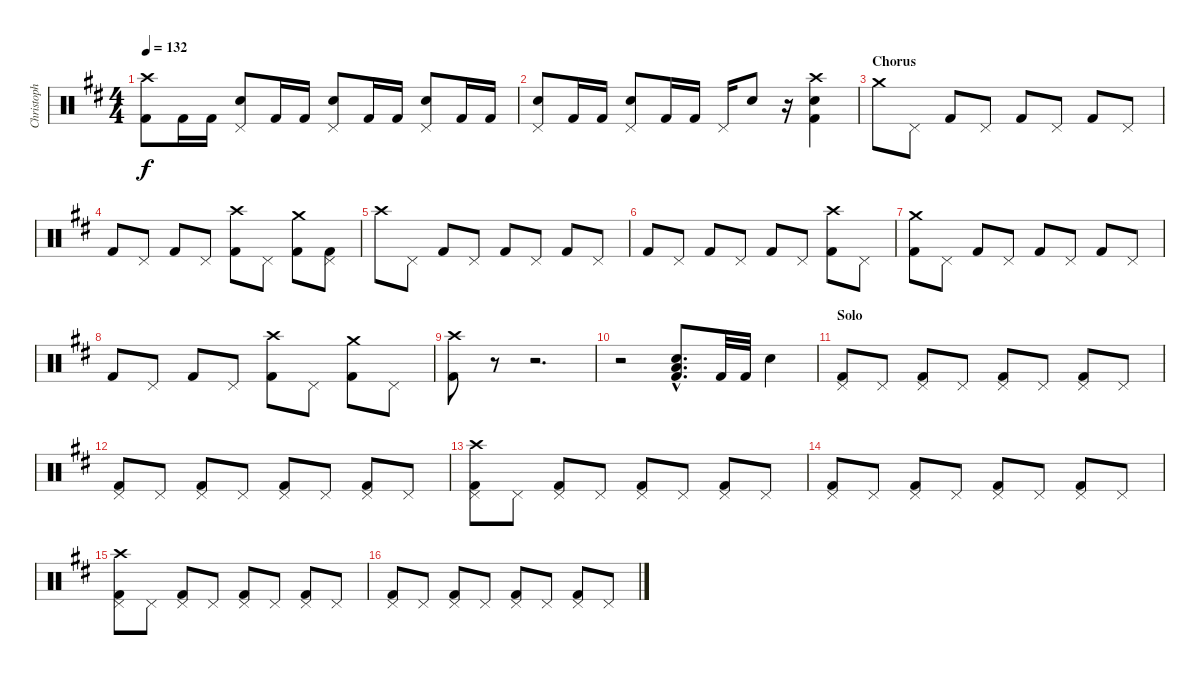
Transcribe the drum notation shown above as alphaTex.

\track ("Christoph Doom Schneider - Drums" "Christoph ") {instrument percussion}
\staff {score}
\articulation defaults
\ts (4 4)
\tempo 132
\clef neutral
\ks d
("Crash high (hit)" "Kick (hit) 2").8{dy f} "Kick (hit) 2".16 "Kick (hit) 2".16 ("Pedal Hi-Hat (hit)" "Snare (hit) 2").8 "Kick (hit) 2".16 "Kick (hit) 2".16 ("Pedal Hi-Hat (hit)" "Snare (hit) 2").8 "Kick (hit) 2".16 "Kick (hit) 2".16 ("Pedal Hi-Hat (hit)" "Snare (hit) 2").8 "Kick (hit) 2".16 "Kick (hit) 2".16 |
("Pedal Hi-Hat (hit)" "Snare (hit) 2").8 "Kick (hit) 2".16 "Kick (hit) 2".16 ("Pedal Hi-Hat (hit)" "Snare (hit) 2").8 "Kick (hit) 2".16 "Kick (hit) 2".16 "Pedal Hi-Hat (hit)".16 "Snare (hit) 2".8 r.16 ("Crash high (hit)" "Snare (hit) 2" "Kick (hit) 2").4 |
\section ("" "Chorus")
"Crash medium (hit)".8 "Pedal Hi-Hat (hit)".8 "Kick (hit) 2".8 "Pedal Hi-Hat (hit)".8 "Kick (hit) 2".8 "Pedal Hi-Hat (hit)".8 "Kick (hit) 2".8 "Pedal Hi-Hat (hit)".8 |
"Kick (hit) 2".8 "Pedal Hi-Hat (hit)".8 "Kick (hit) 2".8 "Pedal Hi-Hat (hit)".8 ("Crash high (hit)" "Kick (hit) 2").8 "Pedal Hi-Hat (hit)".8 ("Crash medium (hit)" "Kick (hit) 2").8 ("Pedal Hi-Hat (hit)" "Kick (hit) 2").8 |
"Crash high (hit)".8 "Pedal Hi-Hat (hit)".8 "Kick (hit) 2".8 "Pedal Hi-Hat (hit)".8 "Kick (hit) 2".8 "Pedal Hi-Hat (hit)".8 "Kick (hit) 2".8 "Pedal Hi-Hat (hit)".8 |
"Kick (hit) 2".8 "Pedal Hi-Hat (hit)".8 "Kick (hit) 2".8 "Pedal Hi-Hat (hit)".8 "Kick (hit) 2".8 "Pedal Hi-Hat (hit)".8 ("Crash high (hit)" "Kick (hit) 2").8 "Pedal Hi-Hat (hit)".8 |
("Crash medium (hit)" "Kick (hit) 2").8 "Pedal Hi-Hat (hit)".8 "Kick (hit) 2".8 "Pedal Hi-Hat (hit)".8 "Kick (hit) 2".8 "Pedal Hi-Hat (hit)".8 "Kick (hit) 2".8 "Pedal Hi-Hat (hit)".8 |
"Kick (hit) 2".8 "Pedal Hi-Hat (hit)".8 "Kick (hit) 2".8 "Pedal Hi-Hat (hit)".8 ("Crash high (hit)" "Kick (hit) 2").8 "Pedal Hi-Hat (hit)".8 ("Crash medium (hit)" "Kick (hit) 2").8 "Pedal Hi-Hat (hit)".8 |
("Crash high (hit)" "Kick (hit) 2").8 r.8 r.2{d} |
r.2 ("Low Floor Tom (hit)"{hac} "Snare (hit) 2"{hac} "Kick (hit) 2"{hac}).8{d} "Kick (hit) 2".32 "Kick (hit) 2".32 "Snare (hit) 2".4 |
\section ("" "Solo")
("Pedal Hi-Hat (hit)" "Kick (hit) 2").8 "Pedal Hi-Hat (hit)".8 ("Pedal Hi-Hat (hit)" "Kick (hit) 2").8 "Pedal Hi-Hat (hit)".8 ("Pedal Hi-Hat (hit)" "Kick (hit) 2").8 "Pedal Hi-Hat (hit)".8 ("Pedal Hi-Hat (hit)" "Kick (hit) 2").8 "Pedal Hi-Hat (hit)".8 |
("Pedal Hi-Hat (hit)" "Kick (hit) 2").8 "Pedal Hi-Hat (hit)".8 ("Pedal Hi-Hat (hit)" "Kick (hit) 2").8 "Pedal Hi-Hat (hit)".8 ("Pedal Hi-Hat (hit)" "Kick (hit) 2").8 "Pedal Hi-Hat (hit)".8 ("Pedal Hi-Hat (hit)" "Kick (hit) 2").8 "Pedal Hi-Hat (hit)".8 |
("Crash high (hit)" "Pedal Hi-Hat (hit)" "Kick (hit) 2").8 "Pedal Hi-Hat (hit)".8 ("Pedal Hi-Hat (hit)" "Kick (hit) 2").8 "Pedal Hi-Hat (hit)".8 ("Pedal Hi-Hat (hit)" "Kick (hit) 2").8 "Pedal Hi-Hat (hit)".8 ("Pedal Hi-Hat (hit)" "Kick (hit) 2").8 "Pedal Hi-Hat (hit)".8 |
("Pedal Hi-Hat (hit)" "Kick (hit) 2").8 "Pedal Hi-Hat (hit)".8 ("Pedal Hi-Hat (hit)" "Kick (hit) 2").8 "Pedal Hi-Hat (hit)".8 ("Pedal Hi-Hat (hit)" "Kick (hit) 2").8 "Pedal Hi-Hat (hit)".8 ("Pedal Hi-Hat (hit)" "Kick (hit) 2").8 "Pedal Hi-Hat (hit)".8 |
("Crash high (hit)" "Pedal Hi-Hat (hit)" "Kick (hit) 2").8 "Pedal Hi-Hat (hit)".8 ("Pedal Hi-Hat (hit)" "Kick (hit) 2").8 "Pedal Hi-Hat (hit)".8 ("Pedal Hi-Hat (hit)" "Kick (hit) 2").8 "Pedal Hi-Hat (hit)".8 ("Pedal Hi-Hat (hit)" "Kick (hit) 2").8 "Pedal Hi-Hat (hit)".8 |
("Pedal Hi-Hat (hit)" "Kick (hit) 2").8 "Pedal Hi-Hat (hit)".8 ("Pedal Hi-Hat (hit)" "Kick (hit) 2").8 "Pedal Hi-Hat (hit)".8 ("Pedal Hi-Hat (hit)" "Kick (hit) 2").8 "Pedal Hi-Hat (hit)".8 ("Pedal Hi-Hat (hit)" "Kick (hit) 2").8 "Pedal Hi-Hat (hit)".8
